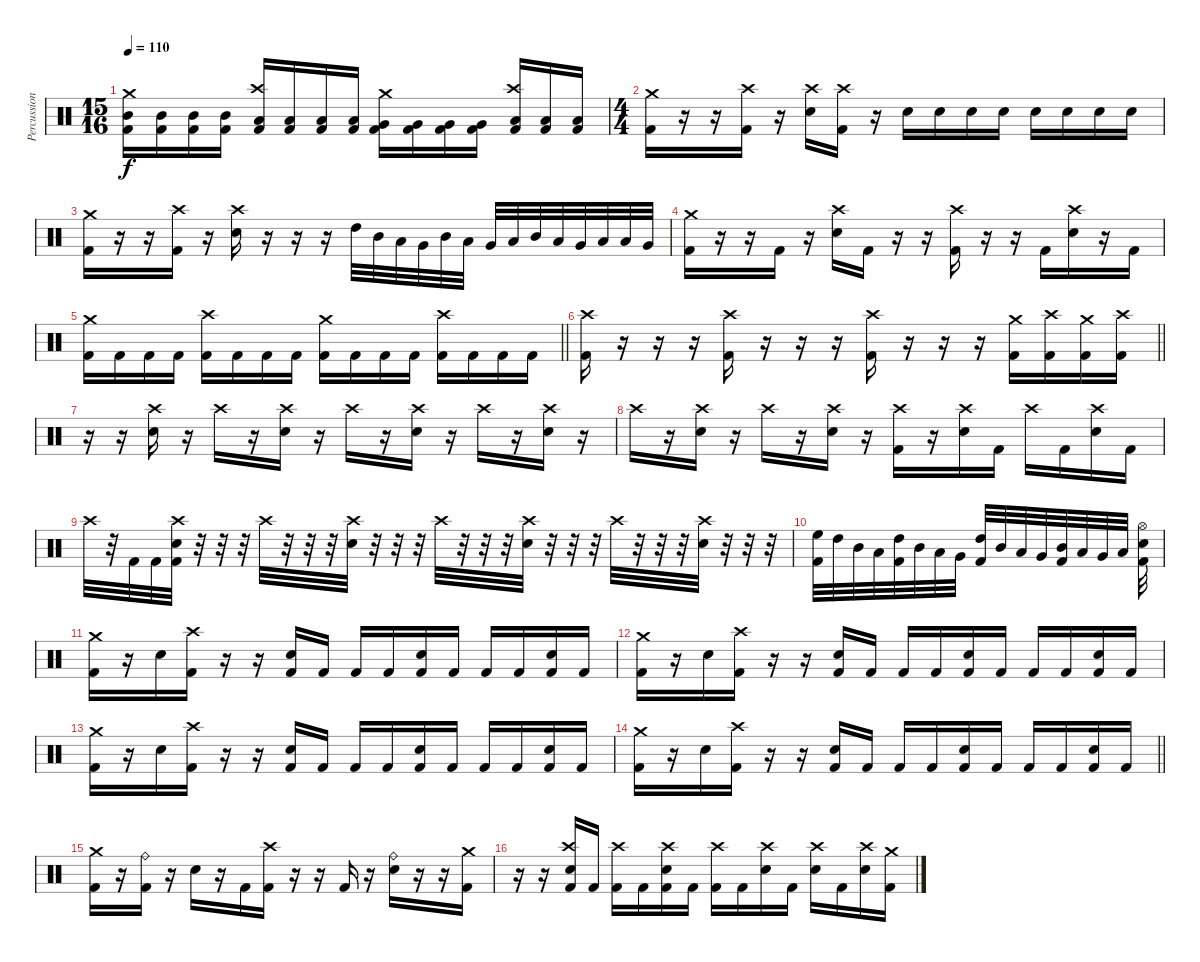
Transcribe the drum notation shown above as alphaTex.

\track ("Percussion (Moose)" "Percussion") {instrument percussion}
\staff {score}
\articulation defaults
\ts (15 16)
\tempo 110
\clef neutral
\ks c
("Crash medium (hit)" "Mid Tom (hit)" "Kick (hit) 2").16{dy f} ("Mid Tom (hit)" "Kick (hit) 2").16 ("Mid Tom (hit)" "Kick (hit) 2").16 ("Mid Tom (hit)" "Kick (hit) 2").16 ("Crash high (hit)" "Low Tom (hit)" "Kick (hit) 2").16 ("Low Tom (hit)" "Kick (hit) 2").16 ("Low Tom (hit)" "Kick (hit) 2").16 ("Low Tom (hit)" "Kick (hit) 2").16 ("Crash medium (hit)" "Very Low Tom (hit)" "Kick (hit) 2").16 ("Very Low Tom (hit)" "Kick (hit) 2").16 ("Very Low Tom (hit)" "Kick (hit) 2").16 ("Very Low Tom (hit)" "Kick (hit) 2").16 ("Crash high (hit)" "Low Floor Tom (hit)" "Kick (hit) 2").16 ("Low Floor Tom (hit)" "Kick (hit) 2").16 ("Low Floor Tom (hit)" "Kick (hit) 2").16 |
\ts (4 4)
("Crash medium (hit)" "Kick (hit) 2").16 r.16 r.16 ("Crash high (hit)" "Kick (hit) 2").16 r.16 ("Crash high (hit)" "Electric Snare (hit)").16 ("Crash high (hit)" "Kick (hit) 2").16 r.16 "Electric Snare (hit)".16 "Electric Snare (hit)".16 "Electric Snare (hit)".16 "Electric Snare (hit)".16 "Electric Snare (hit)".16 "Electric Snare (hit)".16 "Electric Snare (hit)".16 "Electric Snare (hit)".16 |
("Crash medium (hit)" "Kick (hit) 2").16 r.16 r.16 ("Crash high (hit)" "Kick (hit) 2").16 r.16 ("Crash high (hit)" "Electric Snare (hit)").16 r.16 r.16 r.16 "High Tom (hit)".32 "Mid Tom (hit)".32 "Low Tom (hit)".32 "Very Low Tom (hit)".32 "Mid Tom (hit)".32 "Low Tom (hit)".32 "Very Low Tom (hit)".32 "Low Floor Tom (hit)".32 "Mid Tom (hit)".32 "Low Tom (hit)".32 "Very Low Tom (hit)".32 "Low Floor Tom (hit)".32 "Low Tom (hit)".32 "Very Low Tom (hit)".32 |
("Crash medium (hit)" "Kick (hit) 2").16 r.16 r.16 "Kick (hit) 2".16 r.16 ("Crash high (hit)" "Electric Snare (hit)").16 "Kick (hit) 2".16 r.16 r.16 ("Crash high (hit)" "Kick (hit) 2").16 r.16 r.16 "Kick (hit) 2".16 ("Crash high (hit)" "Electric Snare (hit)").16 r.16 "Kick (hit) 2".16 |
\barLineRight lightlight
("Crash medium (hit)" "Kick (hit) 2").16 "Kick (hit) 2".16 "Kick (hit) 2".16 "Kick (hit) 2".16 ("Crash high (hit)" "Kick (hit) 2").16 "Kick (hit) 2".16 "Kick (hit) 2".16 "Kick (hit) 2".16 ("Crash medium (hit)" "Kick (hit) 2").16 "Kick (hit) 2".16 "Kick (hit) 2".16 "Kick (hit) 2".16 ("Crash high (hit)" "Kick (hit) 2").16 "Kick (hit) 2".16 "Kick (hit) 2".16 "Kick (hit) 2".16 |
\barLineRight lightlight
("Crash high (hit)" "Kick (hit) 2").16 r.16 r.16 r.16 ("Crash high (hit)" "Kick (hit) 2").16 r.16 r.16 r.16 ("Crash high (hit)" "Kick (hit) 2").16 r.16 r.16 r.16 ("Crash medium (hit)" "Kick (hit) 2").16 ("Crash high (hit)" "Kick (hit) 2").16 ("Crash medium (hit)" "Kick (hit) 2").16 ("Crash high (hit)" "Kick (hit) 2").16 |
r.16 r.16 ("Crash high (hit)" "Electric Snare (hit)").16 r.16 "Crash high (hit)".16 r.16 ("Crash high (hit)" "Electric Snare (hit)").16 r.16 "Crash high (hit)".16 r.16 ("Crash high (hit)" "Electric Snare (hit)").16 r.16 "Crash high (hit)".16 r.16 ("Crash high (hit)" "Electric Snare (hit)").16 r.16 |
"Crash high (hit)".16 r.16 ("Crash high (hit)" "Electric Snare (hit)").16 r.16 "Crash high (hit)".16 r.16 ("Crash high (hit)" "Electric Snare (hit)").16 r.16 ("Crash high (hit)" "Kick (hit) 2").16 r.16 ("Crash high (hit)" "Electric Snare (hit)").16 "Kick (hit) 2".16 "Crash high (hit)".16 "Kick (hit) 2".16 ("Crash high (hit)" "Electric Snare (hit)").16 "Kick (hit) 2".16 |
"Crash high (hit)".32 r.32 "Kick (hit) 2".32 "Kick (hit) 2".32 ("Crash high (hit)" "Electric Snare (hit)" "Kick (hit) 2").32 r.32 r.32 r.32 "Crash high (hit)".32 r.32 r.32 r.32 ("Crash high (hit)" "Electric Snare (hit)").32 r.32 r.32 r.32 "Crash high (hit)".32 r.32 r.32 r.32 ("Crash high (hit)" "Electric Snare (hit)").32 r.32 r.32 r.32 "Crash high (hit)".32 r.32 r.32 r.32 ("Crash high (hit)" "Electric Snare (hit)").32 r.32 r.32 r.32 |
("High Floor Tom (hit)" "Kick (hit) 2").32 "High Tom (hit)".32 "Mid Tom (hit)".32 "Low Tom (hit)".32 ("High Tom (hit)" "Kick (hit) 2").32 "Mid Tom (hit)".32 "Low Tom (hit)".32 "Very Low Tom (hit)".32 ("High Tom (hit)" "Kick (hit) 2").32 "Mid Tom (hit)".32 "Low Tom (hit)".32 "Very Low Tom (hit)".32 ("Mid Tom (hit)" "Kick (hit) 2").32 "Low Tom (hit)".32 "Very Low Tom (hit)".32 "Low Floor Tom (hit)".32 ("Hi-Hat (open)" "Electric Snare (hit)" "Kick (hit) 2").32 |
("Crash medium (hit)" "Kick (hit) 2").16 r.16 "Electric Snare (hit)".16 ("Crash high (hit)" "Kick (hit) 2").16 r.16 r.16 ("Electric Snare (hit)" "Kick (hit) 2").16 "Kick (hit) 2".16 "Kick (hit) 2".16 "Kick (hit) 2".16 ("Electric Snare (hit)" "Kick (hit) 2").16 "Kick (hit) 2".16 "Kick (hit) 2".16 "Kick (hit) 2".16 ("Electric Snare (hit)" "Kick (hit) 2").16 "Kick (hit) 2".16 |
("Crash medium (hit)" "Kick (hit) 2").16 r.16 "Electric Snare (hit)".16 ("Crash high (hit)" "Kick (hit) 2").16 r.16 r.16 ("Electric Snare (hit)" "Kick (hit) 2").16 "Kick (hit) 2".16 "Kick (hit) 2".16 "Kick (hit) 2".16 ("Electric Snare (hit)" "Kick (hit) 2").16 "Kick (hit) 2".16 "Kick (hit) 2".16 "Kick (hit) 2".16 ("Electric Snare (hit)" "Kick (hit) 2").16 "Kick (hit) 2".16 |
("Crash medium (hit)" "Kick (hit) 2").16 r.16 "Electric Snare (hit)".16 ("Crash high (hit)" "Kick (hit) 2").16 r.16 r.16 ("Electric Snare (hit)" "Kick (hit) 2").16 "Kick (hit) 2".16 "Kick (hit) 2".16 "Kick (hit) 2".16 ("Electric Snare (hit)" "Kick (hit) 2").16 "Kick (hit) 2".16 "Kick (hit) 2".16 "Kick (hit) 2".16 ("Electric Snare (hit)" "Kick (hit) 2").16 "Kick (hit) 2".16 |
\barLineRight lightlight
("Crash medium (hit)" "Kick (hit) 2").16 r.16 "Electric Snare (hit)".16 ("Crash high (hit)" "Kick (hit) 2").16 r.16 r.16 ("Electric Snare (hit)" "Kick (hit) 2").16 "Kick (hit) 2".16 "Kick (hit) 2".16 "Kick (hit) 2".16 ("Electric Snare (hit)" "Kick (hit) 2").16 "Kick (hit) 2".16 "Kick (hit) 2".16 "Kick (hit) 2".16 ("Electric Snare (hit)" "Kick (hit) 2").16 "Kick (hit) 2".16 |
("Crash medium (hit)" "Kick (hit) 2").16 r.16 ("Ride (bell)" "Kick (hit) 2").16 r.16 "Electric Snare (hit)".16 r.16 "Kick (hit) 2".16 ("Crash high (hit)" "Kick (hit) 2").16 r.16 r.16 "Kick (hit) 2".16 r.16 ("Ride (bell)" "Electric Snare (hit)").16 r.16 r.16 ("Crash medium (hit)" "Kick (hit) 2").16 |
r.16 r.16 ("Crash high (hit)" "Electric Snare (hit)" "Kick (hit) 2").16 "Kick (hit) 2".16 ("Crash high (hit)" "Kick (hit) 2").16 "Kick (hit) 2".16 ("Crash high (hit)" "Electric Snare (hit)" "Kick (hit) 2").16 "Kick (hit) 2".16 ("Crash high (hit)" "Kick (hit) 2").16 "Kick (hit) 2".16 ("Crash high (hit)" "Electric Snare (hit)").16 "Kick (hit) 2".16 ("Crash high (hit)" "Electric Snare (hit)").16 "Kick (hit) 2".16 ("Crash high (hit)" "Electric Snare (hit)").16 ("Crash medium (hit)" "Kick (hit) 2").16
